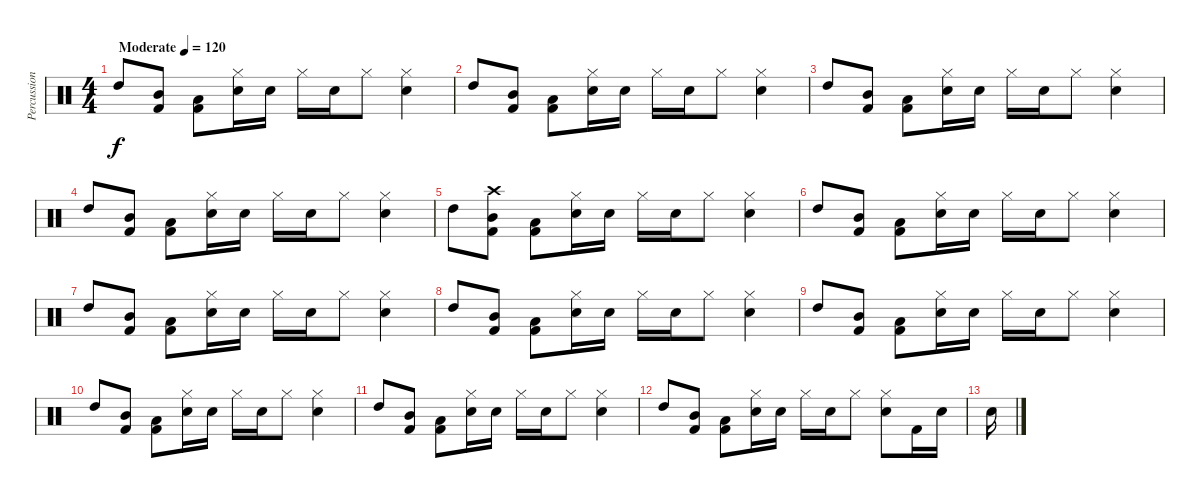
\track ("Percussion" "Percussion") {instrument percussion}
\staff {score}
\articulation defaults
\ts (4 4)
\tempo (120 "Moderate")
\clef neutral
\ks c "High Tom (hit)".8{dy f}
("Mid Tom (hit)" "Kick (hit) 2").8 ("Low Tom (hit)" "Kick (hit) 2").8 ("Electric Snare (hit)" "Hi-Hat (closed)").16 "Electric Snare (hit)".16 "Hi-Hat (closed)".16 "Electric Snare (hit)".16 "Hi-Hat (closed)".8 ("Electric Snare (hit)" "Hi-Hat (closed)").4 |
"High Tom (hit)".8 ("Mid Tom (hit)" "Kick (hit) 2").8 ("Low Tom (hit)" "Kick (hit) 2").8 ("Electric Snare (hit)" "Hi-Hat (closed)").16 "Electric Snare (hit)".16 "Hi-Hat (closed)".16 "Electric Snare (hit)".16 "Hi-Hat (closed)".8 ("Electric Snare (hit)" "Hi-Hat (closed)").4 |
"High Tom (hit)".8 ("Mid Tom (hit)" "Kick (hit) 2").8 ("Low Tom (hit)" "Kick (hit) 2").8 ("Electric Snare (hit)" "Hi-Hat (closed)").16 "Electric Snare (hit)".16 "Hi-Hat (closed)".16 "Electric Snare (hit)".16 "Hi-Hat (closed)".8 ("Electric Snare (hit)" "Hi-Hat (closed)").4 |
"High Tom (hit)".8 ("Mid Tom (hit)" "Kick (hit) 2").8 ("Low Tom (hit)" "Kick (hit) 2").8 ("Electric Snare (hit)" "Hi-Hat (closed)").16 "Electric Snare (hit)".16 "Hi-Hat (closed)".16 "Electric Snare (hit)".16 "Hi-Hat (closed)".8 ("Electric Snare (hit)" "Hi-Hat (closed)").4 |
"High Tom (hit)".8 ("Mid Tom (hit)" "Kick (hit) 2" "Crash high (hit)").8 ("Low Tom (hit)" "Kick (hit) 2").8 ("Electric Snare (hit)" "Hi-Hat (closed)").16 "Electric Snare (hit)".16 "Hi-Hat (closed)".16 "Electric Snare (hit)".16 "Hi-Hat (closed)".8 ("Electric Snare (hit)" "Hi-Hat (closed)").4 |
"High Tom (hit)".8 ("Mid Tom (hit)" "Kick (hit) 2").8 ("Low Tom (hit)" "Kick (hit) 2").8 ("Electric Snare (hit)" "Hi-Hat (closed)").16 "Electric Snare (hit)".16 "Hi-Hat (closed)".16 "Electric Snare (hit)".16 "Hi-Hat (closed)".8 ("Electric Snare (hit)" "Hi-Hat (closed)").4 |
"High Tom (hit)".8 ("Mid Tom (hit)" "Kick (hit) 2").8 ("Low Tom (hit)" "Kick (hit) 2").8 ("Electric Snare (hit)" "Hi-Hat (closed)").16 "Electric Snare (hit)".16 "Hi-Hat (closed)".16 "Electric Snare (hit)".16 "Hi-Hat (closed)".8 ("Electric Snare (hit)" "Hi-Hat (closed)").4 |
"High Tom (hit)".8 ("Mid Tom (hit)" "Kick (hit) 2").8 ("Low Tom (hit)" "Kick (hit) 2").8 ("Electric Snare (hit)" "Hi-Hat (closed)").16 "Electric Snare (hit)".16 "Hi-Hat (closed)".16 "Electric Snare (hit)".16 "Hi-Hat (closed)".8 ("Electric Snare (hit)" "Hi-Hat (closed)").4 |
"High Tom (hit)".8 ("Mid Tom (hit)" "Kick (hit) 2").8 ("Low Tom (hit)" "Kick (hit) 2").8 ("Electric Snare (hit)" "Hi-Hat (closed)").16 "Electric Snare (hit)".16 "Hi-Hat (closed)".16 "Electric Snare (hit)".16 "Hi-Hat (closed)".8 ("Electric Snare (hit)" "Hi-Hat (closed)").4 |
"High Tom (hit)".8 ("Mid Tom (hit)" "Kick (hit) 2").8 ("Low Tom (hit)" "Kick (hit) 2").8 ("Electric Snare (hit)" "Hi-Hat (closed)").16 "Electric Snare (hit)".16 "Hi-Hat (closed)".16 "Electric Snare (hit)".16 "Hi-Hat (closed)".8 ("Electric Snare (hit)" "Hi-Hat (closed)").4 |
"High Tom (hit)".8 ("Mid Tom (hit)" "Kick (hit) 2").8 ("Low Tom (hit)" "Kick (hit) 2").8 ("Electric Snare (hit)" "Hi-Hat (closed)").16 "Electric Snare (hit)".16 "Hi-Hat (closed)".16 "Electric Snare (hit)".16 "Hi-Hat (closed)".8 ("Electric Snare (hit)" "Hi-Hat (closed)").4 |
"High Tom (hit)".8 ("Mid Tom (hit)" "Kick (hit) 2").8 ("Low Tom (hit)" "Kick (hit) 2").8 ("Electric Snare (hit)" "Hi-Hat (closed)").16 "Electric Snare (hit)".16 "Hi-Hat (closed)".16 "Electric Snare (hit)".16 "Hi-Hat (closed)".8 ("Electric Snare (hit)" "Hi-Hat (closed)").8 "Kick (hit) 2".16 "Electric Snare (hit)".16 |
"Electric Snare (hit)".16
